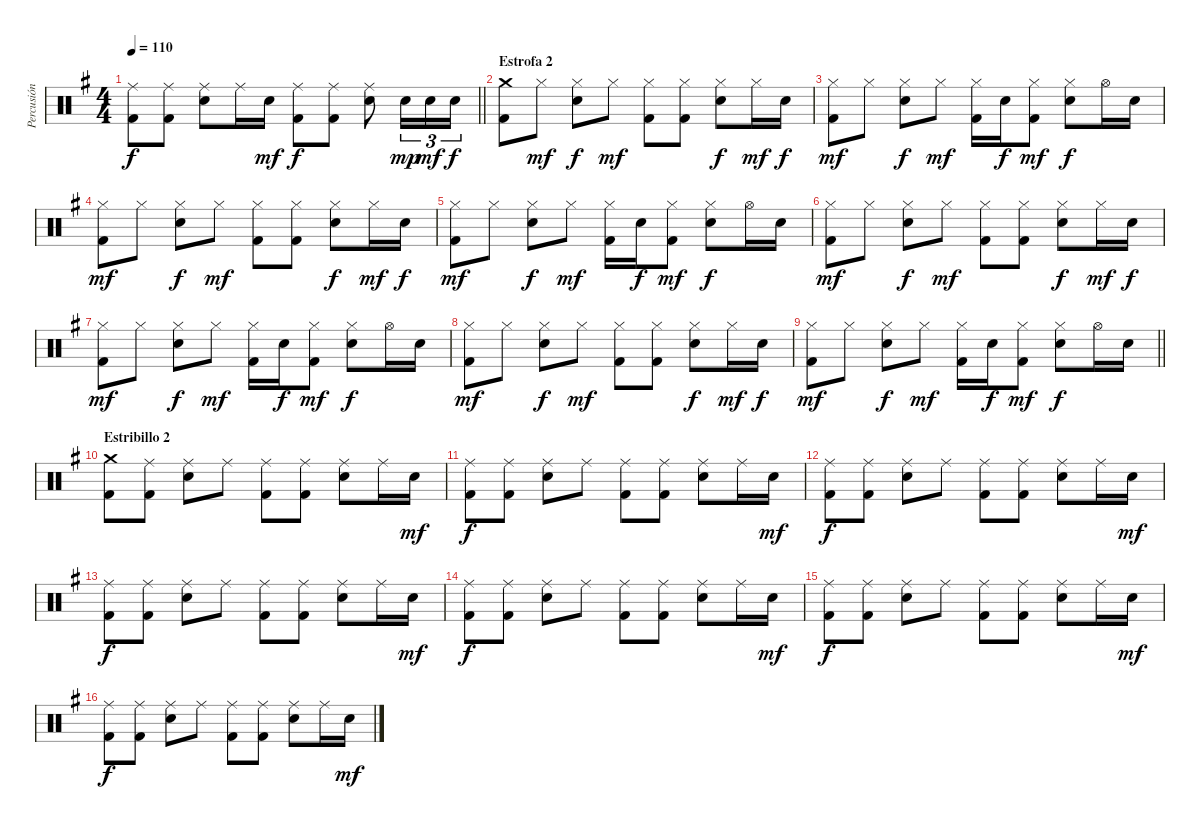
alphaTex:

\track ("Percusión" "Percusión") {instrument percussion}
\staff {score}
\articulation defaults
\ts (4 4)
\tempo 110
\clef neutral
\barLineRight lightlight
\ks g
("Ride (middle)" "Kick (hit) 2").8{dy f} ("Ride (middle)" "Kick (hit) 2").8 ("Ride (middle)" "Snare (hit) 2").8 "Ride (middle)".16 "Snare (hit) 2".16{dy mf} ("Ride (middle)" "Kick (hit) 2").8{dy f} ("Ride (middle)" "Kick (hit) 2").8 ("Ride (middle)" "Snare (hit) 2").8 "Snare (hit) 2".16{tu (3 2) dy mp} "Snare (hit) 2".16{tu (3 2) dy mf} "Snare (hit) 2".16{tu (3 2) dy f} |
\section ("" "Estrofa 2")
("Crash medium (hit)" "Kick (hit) 2").8 "Hi-Hat (closed)".8{dy mf} ("Hi-Hat (closed)" "Electric Snare (hit)").8{dy f} "Hi-Hat (closed)".8{dy mf} ("Hi-Hat (closed)" "Kick (hit) 2").8 ("Hi-Hat (closed)" "Kick (hit) 2").8 ("Hi-Hat (closed)" "Electric Snare (hit)").8{dy f} "Hi-Hat (closed)".16{dy mf} "Electric Snare (hit)".16{dy f} |
("Hi-Hat (closed)" "Kick (hit) 2").8{dy mf} "Hi-Hat (closed)".8 ("Hi-Hat (closed)" "Electric Snare (hit)").8{dy f} "Hi-Hat (closed)".8{dy mf} ("Hi-Hat (closed)" "Kick (hit) 2").16 "Electric Snare (hit)".16{dy f} ("Hi-Hat (closed)" "Kick (hit) 2").8{dy mf} ("Hi-Hat (closed)" "Electric Snare (hit)").8{dy f} "Hi-Hat (open)".16 "Electric Snare (hit)".16 |
("Hi-Hat (closed)" "Kick (hit) 2").8{dy mf} "Hi-Hat (closed)".8 ("Hi-Hat (closed)" "Electric Snare (hit)").8{dy f} "Hi-Hat (closed)".8{dy mf} ("Hi-Hat (closed)" "Kick (hit) 2").8 ("Hi-Hat (closed)" "Kick (hit) 2").8 ("Hi-Hat (closed)" "Electric Snare (hit)").8{dy f} "Hi-Hat (closed)".16{dy mf} "Electric Snare (hit)".16{dy f} |
("Hi-Hat (closed)" "Kick (hit) 2").8{dy mf} "Hi-Hat (closed)".8 ("Hi-Hat (closed)" "Electric Snare (hit)").8{dy f} "Hi-Hat (closed)".8{dy mf} ("Hi-Hat (closed)" "Kick (hit) 2").16 "Electric Snare (hit)".16{dy f} ("Hi-Hat (closed)" "Kick (hit) 2").8{dy mf} ("Hi-Hat (closed)" "Electric Snare (hit)").8{dy f} "Hi-Hat (open)".16 "Electric Snare (hit)".16 |
("Hi-Hat (closed)" "Kick (hit) 2").8{dy mf} "Hi-Hat (closed)".8 ("Hi-Hat (closed)" "Electric Snare (hit)").8{dy f} "Hi-Hat (closed)".8{dy mf} ("Hi-Hat (closed)" "Kick (hit) 2").8 ("Hi-Hat (closed)" "Kick (hit) 2").8 ("Hi-Hat (closed)" "Electric Snare (hit)").8{dy f} "Hi-Hat (closed)".16{dy mf} "Electric Snare (hit)".16{dy f} |
("Hi-Hat (closed)" "Kick (hit) 2").8{dy mf} "Hi-Hat (closed)".8 ("Hi-Hat (closed)" "Electric Snare (hit)").8{dy f} "Hi-Hat (closed)".8{dy mf} ("Hi-Hat (closed)" "Kick (hit) 2").16 "Electric Snare (hit)".16{dy f} ("Hi-Hat (closed)" "Kick (hit) 2").8{dy mf} ("Hi-Hat (closed)" "Electric Snare (hit)").8{dy f} "Hi-Hat (open)".16 "Electric Snare (hit)".16 |
("Hi-Hat (closed)" "Kick (hit) 2").8{dy mf} "Hi-Hat (closed)".8 ("Hi-Hat (closed)" "Electric Snare (hit)").8{dy f} "Hi-Hat (closed)".8{dy mf} ("Hi-Hat (closed)" "Kick (hit) 2").8 ("Hi-Hat (closed)" "Kick (hit) 2").8 ("Hi-Hat (closed)" "Electric Snare (hit)").8{dy f} "Hi-Hat (closed)".16{dy mf} "Electric Snare (hit)".16{dy f} |
\barLineRight lightlight
("Hi-Hat (closed)" "Kick (hit) 2").8{dy mf} "Hi-Hat (closed)".8 ("Hi-Hat (closed)" "Electric Snare (hit)").8{dy f} "Hi-Hat (closed)".8{dy mf} ("Hi-Hat (closed)" "Kick (hit) 2").16 "Electric Snare (hit)".16{dy f} ("Hi-Hat (closed)" "Kick (hit) 2").8{dy mf} ("Hi-Hat (closed)" "Electric Snare (hit)").8{dy f} "Hi-Hat (open)".16 "Electric Snare (hit)".16 |
\section ("" "Estribillo 2")
("Crash medium (hit)" "Kick (hit) 2").8 ("Ride (middle)" "Kick (hit) 2").8 ("Ride (middle)" "Snare (hit) 2").8 "Ride (middle)".8 ("Ride (middle)" "Kick (hit) 2").8 ("Ride (middle)" "Kick (hit) 2").8 ("Ride (middle)" "Snare (hit) 2").8 "Ride (middle)".16 "Snare (hit) 2".16{dy mf} |
("Ride (middle)" "Kick (hit) 2").8{dy f} ("Ride (middle)" "Kick (hit) 2").8 ("Ride (middle)" "Snare (hit) 2").8 "Ride (middle)".8 ("Ride (middle)" "Kick (hit) 2").8 ("Ride (middle)" "Kick (hit) 2").8 ("Ride (middle)" "Snare (hit) 2").8 "Ride (middle)".16 "Snare (hit) 2".16{dy mf} |
("Ride (middle)" "Kick (hit) 2").8{dy f} ("Ride (middle)" "Kick (hit) 2").8 ("Ride (middle)" "Snare (hit) 2").8 "Ride (middle)".8 ("Ride (middle)" "Kick (hit) 2").8 ("Ride (middle)" "Kick (hit) 2").8 ("Ride (middle)" "Snare (hit) 2").8 "Ride (middle)".16 "Snare (hit) 2".16{dy mf} |
("Ride (middle)" "Kick (hit) 2").8{dy f} ("Ride (middle)" "Kick (hit) 2").8 ("Ride (middle)" "Snare (hit) 2").8 "Ride (middle)".8 ("Ride (middle)" "Kick (hit) 2").8 ("Ride (middle)" "Kick (hit) 2").8 ("Ride (middle)" "Snare (hit) 2").8 "Ride (middle)".16 "Snare (hit) 2".16{dy mf} |
("Ride (middle)" "Kick (hit) 2").8{dy f} ("Ride (middle)" "Kick (hit) 2").8 ("Ride (middle)" "Snare (hit) 2").8 "Ride (middle)".8 ("Ride (middle)" "Kick (hit) 2").8 ("Ride (middle)" "Kick (hit) 2").8 ("Ride (middle)" "Snare (hit) 2").8 "Ride (middle)".16 "Snare (hit) 2".16{dy mf} |
("Ride (middle)" "Kick (hit) 2").8{dy f} ("Ride (middle)" "Kick (hit) 2").8 ("Ride (middle)" "Snare (hit) 2").8 "Ride (middle)".8 ("Ride (middle)" "Kick (hit) 2").8 ("Ride (middle)" "Kick (hit) 2").8 ("Ride (middle)" "Snare (hit) 2").8 "Ride (middle)".16 "Snare (hit) 2".16{dy mf} |
("Ride (middle)" "Kick (hit) 2").8{dy f} ("Ride (middle)" "Kick (hit) 2").8 ("Ride (middle)" "Snare (hit) 2").8 "Ride (middle)".8 ("Ride (middle)" "Kick (hit) 2").8 ("Ride (middle)" "Kick (hit) 2").8 ("Ride (middle)" "Snare (hit) 2").8 "Ride (middle)".16 "Snare (hit) 2".16{dy mf}
